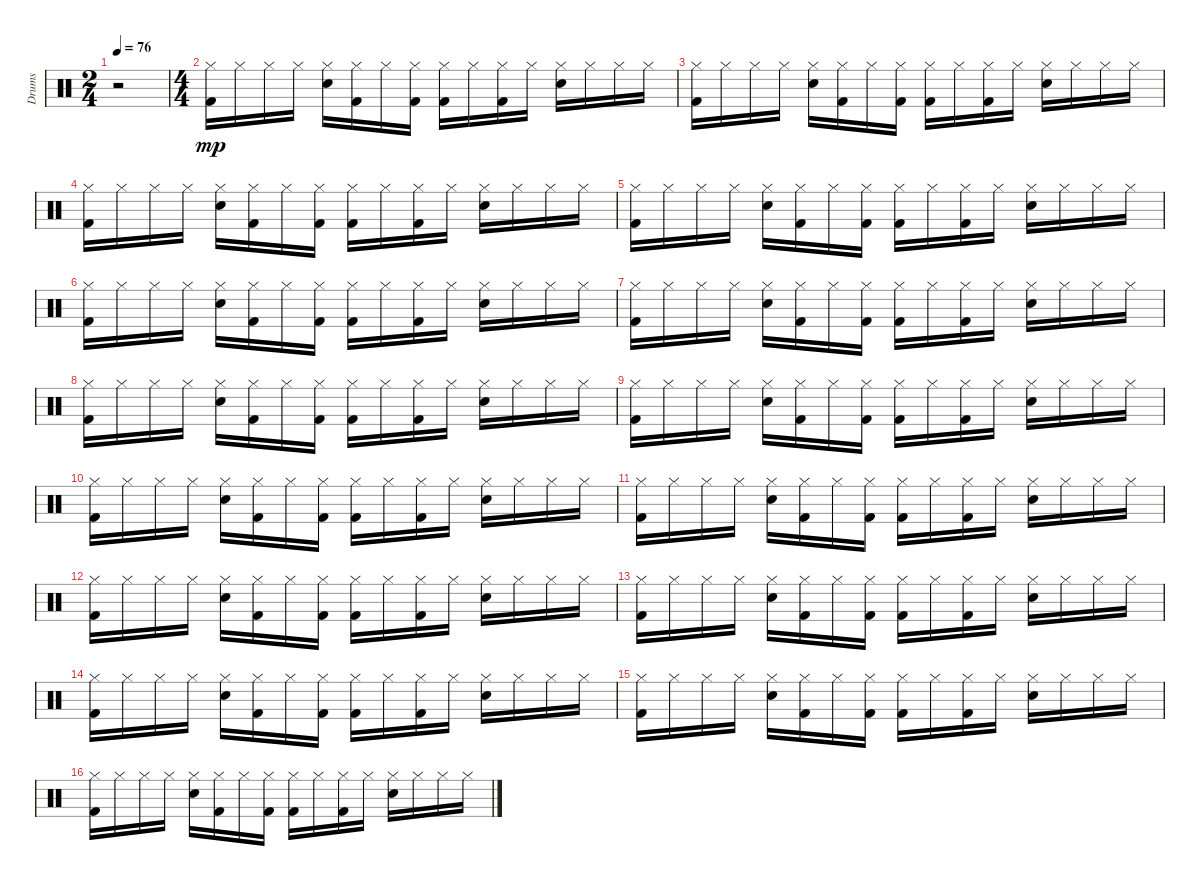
\track ("Drums" "Drums") {instrument percussion}
\staff {score}
\articulation defaults
\ts (2 4)
\tempo 76
\clef neutral
\ks c
r.2{dy mp} |
\ts (4 4)
("Hi-Hat (closed)" "Kick (hit) 2").16 "Hi-Hat (closed)".16 "Hi-Hat (closed)".16 "Hi-Hat (closed)".16 ("Hi-Hat (closed)" "Snare (hit) 2").16 ("Hi-Hat (closed)" "Kick (hit) 2").16 "Hi-Hat (closed)".16 ("Hi-Hat (closed)" "Kick (hit) 2").16 ("Hi-Hat (closed)" "Kick (hit) 2").16 "Hi-Hat (closed)".16 ("Hi-Hat (closed)" "Kick (hit) 2").16 "Hi-Hat (closed)".16 ("Snare (hit) 2" "Hi-Hat (closed)").16 "Hi-Hat (closed)".16 "Hi-Hat (closed)".16 "Hi-Hat (closed)".16 |
("Hi-Hat (closed)" "Kick (hit) 2").16 "Hi-Hat (closed)".16 "Hi-Hat (closed)".16 "Hi-Hat (closed)".16 ("Hi-Hat (closed)" "Snare (hit) 2").16 ("Hi-Hat (closed)" "Kick (hit) 2").16 "Hi-Hat (closed)".16 ("Hi-Hat (closed)" "Kick (hit) 2").16 ("Hi-Hat (closed)" "Kick (hit) 2").16 "Hi-Hat (closed)".16 ("Hi-Hat (closed)" "Kick (hit) 2").16 "Hi-Hat (closed)".16 ("Snare (hit) 2" "Hi-Hat (closed)").16 "Hi-Hat (closed)".16 "Hi-Hat (closed)".16 "Hi-Hat (closed)".16 |
("Hi-Hat (closed)" "Kick (hit) 2").16 "Hi-Hat (closed)".16 "Hi-Hat (closed)".16 "Hi-Hat (closed)".16 ("Hi-Hat (closed)" "Snare (hit) 2").16 ("Hi-Hat (closed)" "Kick (hit) 2").16 "Hi-Hat (closed)".16 ("Hi-Hat (closed)" "Kick (hit) 2").16 ("Hi-Hat (closed)" "Kick (hit) 2").16 "Hi-Hat (closed)".16 ("Hi-Hat (closed)" "Kick (hit) 2").16 "Hi-Hat (closed)".16 ("Snare (hit) 2" "Hi-Hat (closed)").16 "Hi-Hat (closed)".16 "Hi-Hat (closed)".16 "Hi-Hat (closed)".16 |
("Hi-Hat (closed)" "Kick (hit) 2").16 "Hi-Hat (closed)".16 "Hi-Hat (closed)".16 "Hi-Hat (closed)".16 ("Hi-Hat (closed)" "Snare (hit) 2").16 ("Hi-Hat (closed)" "Kick (hit) 2").16 "Hi-Hat (closed)".16 ("Hi-Hat (closed)" "Kick (hit) 2").16 ("Hi-Hat (closed)" "Kick (hit) 2").16 "Hi-Hat (closed)".16 ("Hi-Hat (closed)" "Kick (hit) 2").16 "Hi-Hat (closed)".16 ("Snare (hit) 2" "Hi-Hat (closed)").16 "Hi-Hat (closed)".16 "Hi-Hat (closed)".16 "Hi-Hat (closed)".16 |
("Hi-Hat (closed)" "Kick (hit) 2").16 "Hi-Hat (closed)".16 "Hi-Hat (closed)".16 "Hi-Hat (closed)".16 ("Hi-Hat (closed)" "Snare (hit) 2").16 ("Hi-Hat (closed)" "Kick (hit) 2").16 "Hi-Hat (closed)".16 ("Hi-Hat (closed)" "Kick (hit) 2").16 ("Hi-Hat (closed)" "Kick (hit) 2").16 "Hi-Hat (closed)".16 ("Hi-Hat (closed)" "Kick (hit) 2").16 "Hi-Hat (closed)".16 ("Snare (hit) 2" "Hi-Hat (closed)").16 "Hi-Hat (closed)".16 "Hi-Hat (closed)".16 "Hi-Hat (closed)".16 |
("Hi-Hat (closed)" "Kick (hit) 2").16 "Hi-Hat (closed)".16 "Hi-Hat (closed)".16 "Hi-Hat (closed)".16 ("Hi-Hat (closed)" "Snare (hit) 2").16 ("Hi-Hat (closed)" "Kick (hit) 2").16 "Hi-Hat (closed)".16 ("Hi-Hat (closed)" "Kick (hit) 2").16 ("Hi-Hat (closed)" "Kick (hit) 2").16 "Hi-Hat (closed)".16 ("Hi-Hat (closed)" "Kick (hit) 2").16 "Hi-Hat (closed)".16 ("Snare (hit) 2" "Hi-Hat (closed)").16 "Hi-Hat (closed)".16 "Hi-Hat (closed)".16 "Hi-Hat (closed)".16 |
("Hi-Hat (closed)" "Kick (hit) 2").16 "Hi-Hat (closed)".16 "Hi-Hat (closed)".16 "Hi-Hat (closed)".16 ("Hi-Hat (closed)" "Snare (hit) 2").16 ("Hi-Hat (closed)" "Kick (hit) 2").16 "Hi-Hat (closed)".16 ("Hi-Hat (closed)" "Kick (hit) 2").16 ("Hi-Hat (closed)" "Kick (hit) 2").16 "Hi-Hat (closed)".16 ("Hi-Hat (closed)" "Kick (hit) 2").16 "Hi-Hat (closed)".16 ("Snare (hit) 2" "Hi-Hat (closed)").16 "Hi-Hat (closed)".16 "Hi-Hat (closed)".16 "Hi-Hat (closed)".16 |
("Hi-Hat (closed)" "Kick (hit) 2").16 "Hi-Hat (closed)".16 "Hi-Hat (closed)".16 "Hi-Hat (closed)".16 ("Hi-Hat (closed)" "Snare (hit) 2").16 ("Hi-Hat (closed)" "Kick (hit) 2").16 "Hi-Hat (closed)".16 ("Hi-Hat (closed)" "Kick (hit) 2").16 ("Hi-Hat (closed)" "Kick (hit) 2").16 "Hi-Hat (closed)".16 ("Hi-Hat (closed)" "Kick (hit) 2").16 "Hi-Hat (closed)".16 ("Snare (hit) 2" "Hi-Hat (closed)").16 "Hi-Hat (closed)".16 "Hi-Hat (closed)".16 "Hi-Hat (closed)".16 |
("Hi-Hat (closed)" "Kick (hit) 2").16 "Hi-Hat (closed)".16 "Hi-Hat (closed)".16 "Hi-Hat (closed)".16 ("Hi-Hat (closed)" "Snare (hit) 2").16 ("Hi-Hat (closed)" "Kick (hit) 2").16 "Hi-Hat (closed)".16 ("Hi-Hat (closed)" "Kick (hit) 2").16 ("Hi-Hat (closed)" "Kick (hit) 2").16 "Hi-Hat (closed)".16 ("Hi-Hat (closed)" "Kick (hit) 2").16 "Hi-Hat (closed)".16 ("Snare (hit) 2" "Hi-Hat (closed)").16 "Hi-Hat (closed)".16 "Hi-Hat (closed)".16 "Hi-Hat (closed)".16 |
("Hi-Hat (closed)" "Kick (hit) 2").16 "Hi-Hat (closed)".16 "Hi-Hat (closed)".16 "Hi-Hat (closed)".16 ("Hi-Hat (closed)" "Snare (hit) 2").16 ("Hi-Hat (closed)" "Kick (hit) 2").16 "Hi-Hat (closed)".16 ("Hi-Hat (closed)" "Kick (hit) 2").16 ("Hi-Hat (closed)" "Kick (hit) 2").16 "Hi-Hat (closed)".16 ("Hi-Hat (closed)" "Kick (hit) 2").16 "Hi-Hat (closed)".16 ("Snare (hit) 2" "Hi-Hat (closed)").16 "Hi-Hat (closed)".16 "Hi-Hat (closed)".16 "Hi-Hat (closed)".16 |
("Hi-Hat (closed)" "Kick (hit) 2").16 "Hi-Hat (closed)".16 "Hi-Hat (closed)".16 "Hi-Hat (closed)".16 ("Hi-Hat (closed)" "Snare (hit) 2").16 ("Hi-Hat (closed)" "Kick (hit) 2").16 "Hi-Hat (closed)".16 ("Hi-Hat (closed)" "Kick (hit) 2").16 ("Hi-Hat (closed)" "Kick (hit) 2").16 "Hi-Hat (closed)".16 ("Hi-Hat (closed)" "Kick (hit) 2").16 "Hi-Hat (closed)".16 ("Snare (hit) 2" "Hi-Hat (closed)").16 "Hi-Hat (closed)".16 "Hi-Hat (closed)".16 "Hi-Hat (closed)".16 |
("Hi-Hat (closed)" "Kick (hit) 2").16 "Hi-Hat (closed)".16 "Hi-Hat (closed)".16 "Hi-Hat (closed)".16 ("Hi-Hat (closed)" "Snare (hit) 2").16 ("Hi-Hat (closed)" "Kick (hit) 2").16 "Hi-Hat (closed)".16 ("Hi-Hat (closed)" "Kick (hit) 2").16 ("Hi-Hat (closed)" "Kick (hit) 2").16 "Hi-Hat (closed)".16 ("Hi-Hat (closed)" "Kick (hit) 2").16 "Hi-Hat (closed)".16 ("Snare (hit) 2" "Hi-Hat (closed)").16 "Hi-Hat (closed)".16 "Hi-Hat (closed)".16 "Hi-Hat (closed)".16 |
("Hi-Hat (closed)" "Kick (hit) 2").16 "Hi-Hat (closed)".16 "Hi-Hat (closed)".16 "Hi-Hat (closed)".16 ("Hi-Hat (closed)" "Snare (hit) 2").16 ("Hi-Hat (closed)" "Kick (hit) 2").16 "Hi-Hat (closed)".16 ("Hi-Hat (closed)" "Kick (hit) 2").16 ("Hi-Hat (closed)" "Kick (hit) 2").16 "Hi-Hat (closed)".16 ("Hi-Hat (closed)" "Kick (hit) 2").16 "Hi-Hat (closed)".16 ("Snare (hit) 2" "Hi-Hat (closed)").16 "Hi-Hat (closed)".16 "Hi-Hat (closed)".16 "Hi-Hat (closed)".16 |
("Hi-Hat (closed)" "Kick (hit) 2").16 "Hi-Hat (closed)".16 "Hi-Hat (closed)".16 "Hi-Hat (closed)".16 ("Hi-Hat (closed)" "Snare (hit) 2").16 ("Hi-Hat (closed)" "Kick (hit) 2").16 "Hi-Hat (closed)".16 ("Hi-Hat (closed)" "Kick (hit) 2").16 ("Hi-Hat (closed)" "Kick (hit) 2").16 "Hi-Hat (closed)".16 ("Hi-Hat (closed)" "Kick (hit) 2").16 "Hi-Hat (closed)".16 ("Snare (hit) 2" "Hi-Hat (closed)").16 "Hi-Hat (closed)".16 "Hi-Hat (closed)".16 "Hi-Hat (closed)".16 |
("Hi-Hat (closed)" "Kick (hit) 2").16 "Hi-Hat (closed)".16 "Hi-Hat (closed)".16 "Hi-Hat (closed)".16 ("Hi-Hat (closed)" "Snare (hit) 2").16 ("Hi-Hat (closed)" "Kick (hit) 2").16 "Hi-Hat (closed)".16 ("Hi-Hat (closed)" "Kick (hit) 2").16 ("Hi-Hat (closed)" "Kick (hit) 2").16 "Hi-Hat (closed)".16 ("Hi-Hat (closed)" "Kick (hit) 2").16 "Hi-Hat (closed)".16 ("Snare (hit) 2" "Hi-Hat (closed)").16 "Hi-Hat (closed)".16 "Hi-Hat (closed)".16 "Hi-Hat (closed)".16
